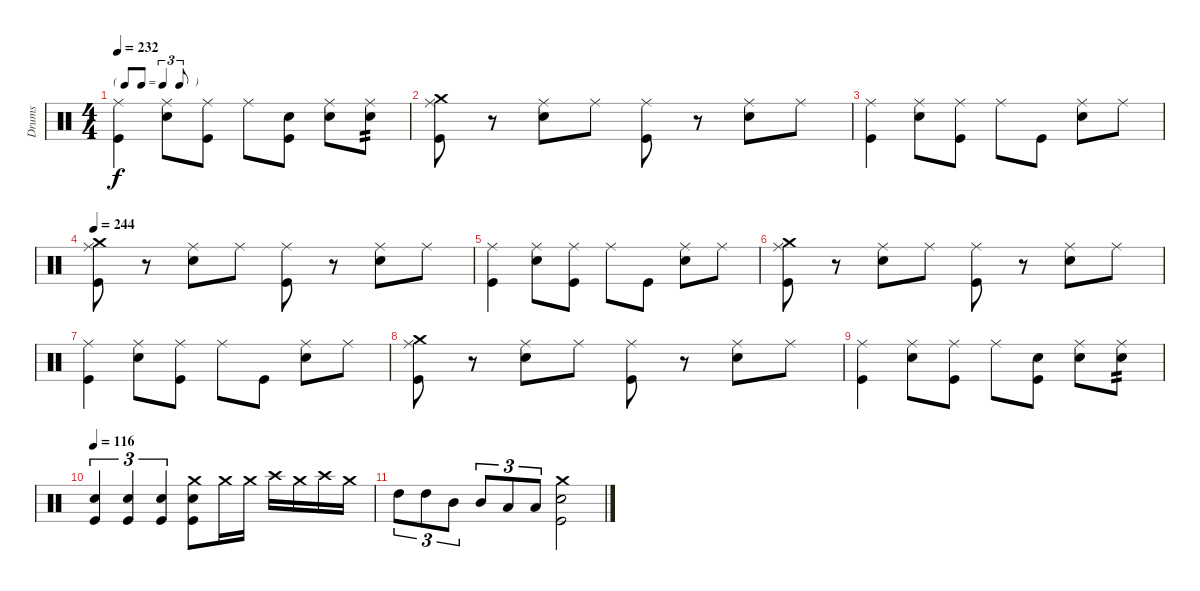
\track ("Drums" "Drums") {instrument percussion}
\staff {score}
\articulation defaults
\ts (4 4)
\tf triplet8th
\tempo 232
\clef neutral
\ks c
("Ride (middle)" "Kick (hit)").4{dy f} ("Ride (middle)" "Electric Snare (hit)").8 ("Ride (middle)" "Kick (hit)").8 "Ride (middle)".8 ("Electric Snare (hit)" "Kick (hit)").8 ("Ride (middle)" "Electric Snare (hit)").8 ("Ride (middle)" "Electric Snare (hit)").8{tp 2} |
("Crash medium (hit)" "Ride (middle)" "Kick (hit)").8 r.8 ("Ride (middle)" "Electric Snare (hit)").8 "Ride (middle)".8 ("Ride (middle)" "Kick (hit)").8 r.8 ("Ride (middle)" "Electric Snare (hit)").8 "Ride (middle)".8 |
("Ride (middle)" "Kick (hit)").4 ("Ride (middle)" "Electric Snare (hit)").8 ("Ride (middle)" "Kick (hit)").8 "Ride (middle)".8 "Kick (hit)".8 ("Ride (middle)" "Electric Snare (hit)").8 "Ride (middle)".8 |
\tempo 244
("Crash medium (hit)" "Ride (middle)" "Kick (hit)").8 r.8 ("Ride (middle)" "Electric Snare (hit)").8 "Ride (middle)".8 ("Ride (middle)" "Kick (hit)").8 r.8 ("Ride (middle)" "Electric Snare (hit)").8 "Ride (middle)".8 |
("Ride (middle)" "Kick (hit)").4 ("Ride (middle)" "Electric Snare (hit)").8 ("Ride (middle)" "Kick (hit)").8 "Ride (middle)".8 "Kick (hit)".8 ("Ride (middle)" "Electric Snare (hit)").8 "Ride (middle)".8 |
("Crash medium (hit)" "Ride (middle)" "Kick (hit)").8 r.8 ("Ride (middle)" "Electric Snare (hit)").8 "Ride (middle)".8 ("Ride (middle)" "Kick (hit)").8 r.8 ("Ride (middle)" "Electric Snare (hit)").8 "Ride (middle)".8 |
("Ride (middle)" "Kick (hit)").4 ("Ride (middle)" "Electric Snare (hit)").8 ("Ride (middle)" "Kick (hit)").8 "Ride (middle)".8 "Kick (hit)".8 ("Ride (middle)" "Electric Snare (hit)").8 "Ride (middle)".8 |
("Crash medium (hit)" "Ride (middle)" "Kick (hit)").8 r.8 ("Ride (middle)" "Electric Snare (hit)").8 "Ride (middle)".8 ("Ride (middle)" "Kick (hit)").8 r.8 ("Ride (middle)" "Electric Snare (hit)").8 "Ride (middle)".8 |
("Ride (middle)" "Kick (hit)").4 ("Ride (middle)" "Electric Snare (hit)").8 ("Ride (middle)" "Kick (hit)").8 "Ride (middle)".8 ("Electric Snare (hit)" "Kick (hit)").8 ("Ride (middle)" "Electric Snare (hit)").8 ("Ride (middle)" "Electric Snare (hit)").8{tp 2} |
\tempo 116
("Electric Snare (hit)" "Kick (hit)").4{tu (3 2)} ("Electric Snare (hit)" "Kick (hit)").4{tu (3 2)} ("Electric Snare (hit)" "Kick (hit)").4{tu (3 2)} ("Crash medium (hit)" "Electric Snare (hit)" "Kick (hit)").8 "Crash medium (hit)".16 "Crash medium (hit)".16 "Crash high (hit)".16 "Crash medium (hit)".16 "Crash high (hit)".16 "Crash medium (hit)".16 |
"High Tom (hit)".8{tu (3 2)} "High Tom (hit)".8{tu (3 2)} "Mid Tom (hit)".8{tu (3 2)} "Mid Tom (hit)".8{tu (3 2)} "Low Tom (hit)".8{tu (3 2)} "Low Tom (hit)".8{tu (3 2)} ("Crash medium (hit)" "Electric Snare (hit)" "Kick (hit)").2
